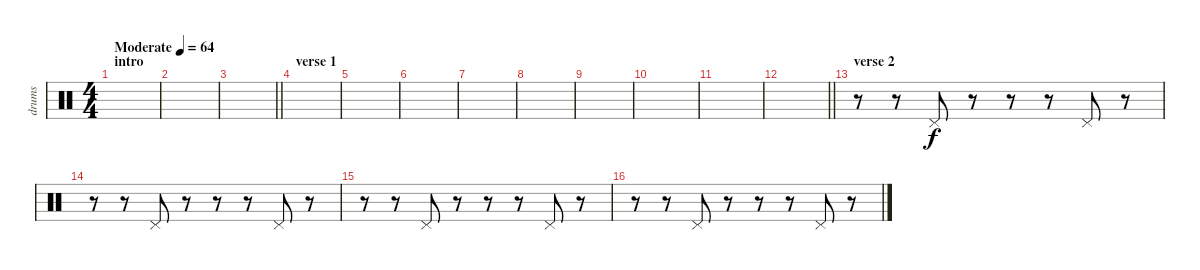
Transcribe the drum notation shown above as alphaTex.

\track ("drums" "drums") {instrument percussion}
\staff {score}
\articulation defaults
\ts (4 4)
\section ("" "intro")
\tempo (64 "Moderate")
\clef neutral
\ks c
|
|
\barLineRight lightlight
|
\section ("" "verse 1")
|
|
|
|
|
|
|
|
\barLineRight lightlight
|
\section ("" "verse 2")
r.8 r.8 "Pedal Hi-Hat (hit)".8 r.8 r.8 r.8 "Pedal Hi-Hat (hit)".8 r.8 |
r.8 r.8 "Pedal Hi-Hat (hit)".8 r.8 r.8 r.8 "Pedal Hi-Hat (hit)".8 r.8 |
r.8 r.8 "Pedal Hi-Hat (hit)".8 r.8 r.8 r.8 "Pedal Hi-Hat (hit)".8 r.8 |
r.8 r.8 "Pedal Hi-Hat (hit)".8 r.8 r.8 r.8 "Pedal Hi-Hat (hit)".8 r.8
